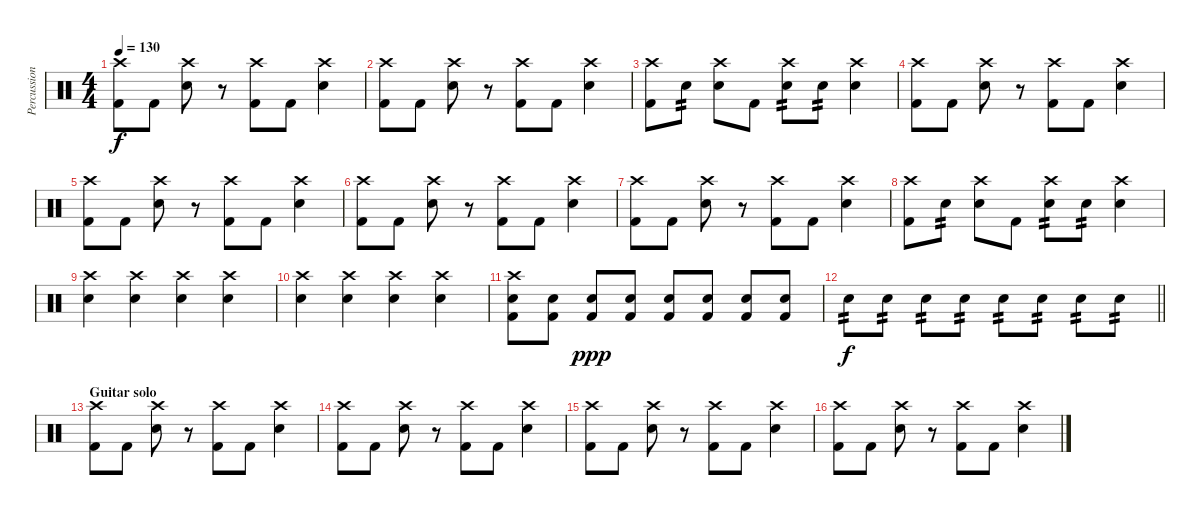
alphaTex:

\track ("Percussion" "Percussion") {instrument percussion}
\staff {score}
\articulation defaults
\ts (4 4)
\tempo 130
\clef neutral
\ks c
("Crash high (hit)" "Kick (hit) 2").8{dy f} "Kick (hit) 2".8 ("Crash high (hit)" "Electric Snare (hit)").8 r.8 ("Crash high (hit)" "Kick (hit) 2").8 "Kick (hit) 2".8 ("Crash high (hit)" "Electric Snare (hit)").4 |
("Crash high (hit)" "Kick (hit) 2").8 "Kick (hit) 2".8 ("Crash high (hit)" "Electric Snare (hit)").8 r.8 ("Crash high (hit)" "Kick (hit) 2").8 "Kick (hit) 2".8 ("Crash high (hit)" "Electric Snare (hit)").4 |
("Crash high (hit)" "Kick (hit) 2").8 "Electric Snare (hit)".8{tp 2} ("Crash high (hit)" "Electric Snare (hit)").8 "Kick (hit) 2".8 ("Crash high (hit)" "Electric Snare (hit)").8{tp 2} "Electric Snare (hit)".8{tp 2} ("Crash high (hit)" "Electric Snare (hit)").4 |
("Crash high (hit)" "Kick (hit) 2").8 "Kick (hit) 2".8 ("Crash high (hit)" "Electric Snare (hit)").8 r.8 ("Crash high (hit)" "Kick (hit) 2").8 "Kick (hit) 2".8 ("Crash high (hit)" "Electric Snare (hit)").4 |
("Crash high (hit)" "Kick (hit) 2").8 "Kick (hit) 2".8 ("Crash high (hit)" "Electric Snare (hit)").8 r.8 ("Crash high (hit)" "Kick (hit) 2").8 "Kick (hit) 2".8 ("Crash high (hit)" "Electric Snare (hit)").4 |
("Crash high (hit)" "Kick (hit) 2").8 "Kick (hit) 2".8 ("Crash high (hit)" "Electric Snare (hit)").8 r.8 ("Crash high (hit)" "Kick (hit) 2").8 "Kick (hit) 2".8 ("Crash high (hit)" "Electric Snare (hit)").4 |
("Crash high (hit)" "Kick (hit) 2").8 "Kick (hit) 2".8 ("Crash high (hit)" "Electric Snare (hit)").8 r.8 ("Crash high (hit)" "Kick (hit) 2").8 "Kick (hit) 2".8 ("Crash high (hit)" "Electric Snare (hit)").4 |
("Crash high (hit)" "Kick (hit) 2").8 "Electric Snare (hit)".8{tp 2} ("Crash high (hit)" "Electric Snare (hit)").8 "Kick (hit) 2".8 ("Crash high (hit)" "Electric Snare (hit)").8{tp 2} "Electric Snare (hit)".8{tp 2} ("Crash high (hit)" "Electric Snare (hit)").4 |
("Crash high (hit)" "Electric Snare (hit)").4 ("Crash high (hit)" "Electric Snare (hit)").4 ("Crash high (hit)" "Electric Snare (hit)").4 ("Crash high (hit)" "Electric Snare (hit)").4 |
("Crash high (hit)" "Electric Snare (hit)").4 ("Crash high (hit)" "Electric Snare (hit)").4 ("Crash high (hit)" "Electric Snare (hit)").4 ("Crash high (hit)" "Electric Snare (hit)").4 |
("Electric Snare (hit)" "Crash high (hit)" "Kick (hit) 2").8 ("Electric Snare (hit)" "Kick (hit) 2").8 ("Electric Snare (hit)" "Kick (hit) 2").8{dy ppp} ("Electric Snare (hit)" "Kick (hit) 2").8 ("Electric Snare (hit)" "Kick (hit) 2").8 ("Electric Snare (hit)" "Kick (hit) 2").8 ("Electric Snare (hit)" "Kick (hit) 2").8 ("Electric Snare (hit)" "Kick (hit) 2").8 |
\barLineRight lightlight "Electric Snare (hit)".8{tp 2 dy f} "Electric Snare (hit)".8{tp 2} "Electric Snare (hit)".8{tp 2} "Electric Snare (hit)".8{tp 2} "Electric Snare (hit)".8{tp 2} "Electric Snare (hit)".8{tp 2} "Electric Snare (hit)".8{tp 2} "Electric Snare (hit)".8{tp 2}
|
\section ("" "Guitar solo")
("Crash high (hit)" "Kick (hit) 2").8 "Kick (hit) 2".8 ("Crash high (hit)" "Electric Snare (hit)").8 r.8 ("Crash high (hit)" "Kick (hit) 2").8 "Kick (hit) 2".8 ("Crash high (hit)" "Electric Snare (hit)").4 |
("Crash high (hit)" "Kick (hit) 2").8 "Kick (hit) 2".8 ("Crash high (hit)" "Electric Snare (hit)").8 r.8 ("Crash high (hit)" "Kick (hit) 2").8 "Kick (hit) 2".8 ("Crash high (hit)" "Electric Snare (hit)").4 |
("Crash high (hit)" "Kick (hit) 2").8 "Kick (hit) 2".8 ("Crash high (hit)" "Electric Snare (hit)").8 r.8 ("Crash high (hit)" "Kick (hit) 2").8 "Kick (hit) 2".8 ("Crash high (hit)" "Electric Snare (hit)").4 |
("Crash high (hit)" "Kick (hit) 2").8 "Kick (hit) 2".8 ("Crash high (hit)" "Electric Snare (hit)").8 r.8 ("Crash high (hit)" "Kick (hit) 2").8 "Kick (hit) 2".8 ("Crash high (hit)" "Electric Snare (hit)").4
